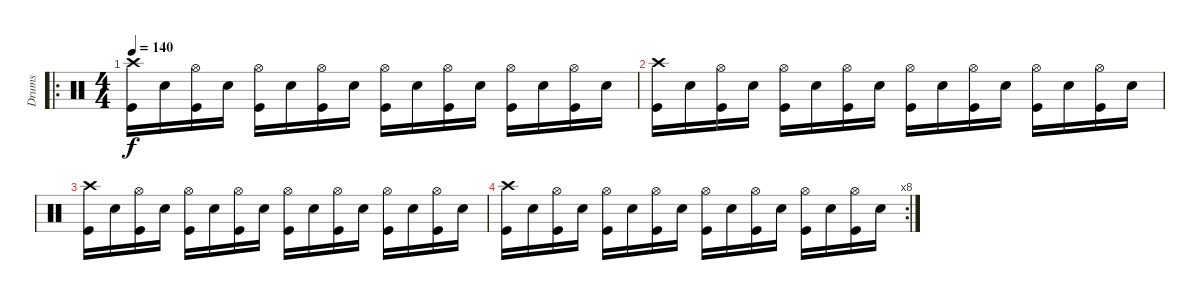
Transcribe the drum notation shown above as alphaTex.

\track ("Drums" "Drums") {instrument percussion}
\staff {score}
\articulation defaults
\ro
\ts (4 4)
\tempo 140
\clef neutral
\ks c
("Crash high (hit)" "Kick (hit)").16{dy f} "Electric Snare (hit)".16 ("Hi-Hat (open)" "Kick (hit)").16 "Electric Snare (hit)".16 ("Hi-Hat (open)" "Kick (hit)").16 "Electric Snare (hit)".16 ("Hi-Hat (open)" "Kick (hit)").16 "Electric Snare (hit)".16 ("Hi-Hat (open)" "Kick (hit)").16 "Electric Snare (hit)".16 ("Hi-Hat (open)" "Kick (hit)").16 "Electric Snare (hit)".16 ("Hi-Hat (open)" "Kick (hit)").16 "Electric Snare (hit)".16 ("Hi-Hat (open)" "Kick (hit)").16 "Electric Snare (hit)".16 |
("Crash high (hit)" "Kick (hit)").16 "Electric Snare (hit)".16 ("Hi-Hat (open)" "Kick (hit)").16 "Electric Snare (hit)".16 ("Hi-Hat (open)" "Kick (hit)").16 "Electric Snare (hit)".16 ("Hi-Hat (open)" "Kick (hit)").16 "Electric Snare (hit)".16 ("Hi-Hat (open)" "Kick (hit)").16 "Electric Snare (hit)".16 ("Hi-Hat (open)" "Kick (hit)").16 "Electric Snare (hit)".16 ("Hi-Hat (open)" "Kick (hit)").16 "Electric Snare (hit)".16 ("Hi-Hat (open)" "Kick (hit)").16 "Electric Snare (hit)".16 |
("Crash high (hit)" "Kick (hit)").16 "Electric Snare (hit)".16 ("Hi-Hat (open)" "Kick (hit)").16 "Electric Snare (hit)".16 ("Hi-Hat (open)" "Kick (hit)").16 "Electric Snare (hit)".16 ("Hi-Hat (open)" "Kick (hit)").16 "Electric Snare (hit)".16 ("Hi-Hat (open)" "Kick (hit)").16 "Electric Snare (hit)".16 ("Hi-Hat (open)" "Kick (hit)").16 "Electric Snare (hit)".16 ("Hi-Hat (open)" "Kick (hit)").16 "Electric Snare (hit)".16 ("Hi-Hat (open)" "Kick (hit)").16 "Electric Snare (hit)".16 |
\rc 8
("Crash high (hit)" "Kick (hit)").16 "Electric Snare (hit)".16 ("Hi-Hat (open)" "Kick (hit)").16 "Electric Snare (hit)".16 ("Hi-Hat (open)" "Kick (hit)").16 "Electric Snare (hit)".16 ("Hi-Hat (open)" "Kick (hit)").16 "Electric Snare (hit)".16 ("Hi-Hat (open)" "Kick (hit)").16 "Electric Snare (hit)".16 ("Hi-Hat (open)" "Kick (hit)").16 "Electric Snare (hit)".16 ("Hi-Hat (open)" "Kick (hit)").16 "Electric Snare (hit)".16 ("Hi-Hat (open)" "Kick (hit)").16 "Electric Snare (hit)".16
